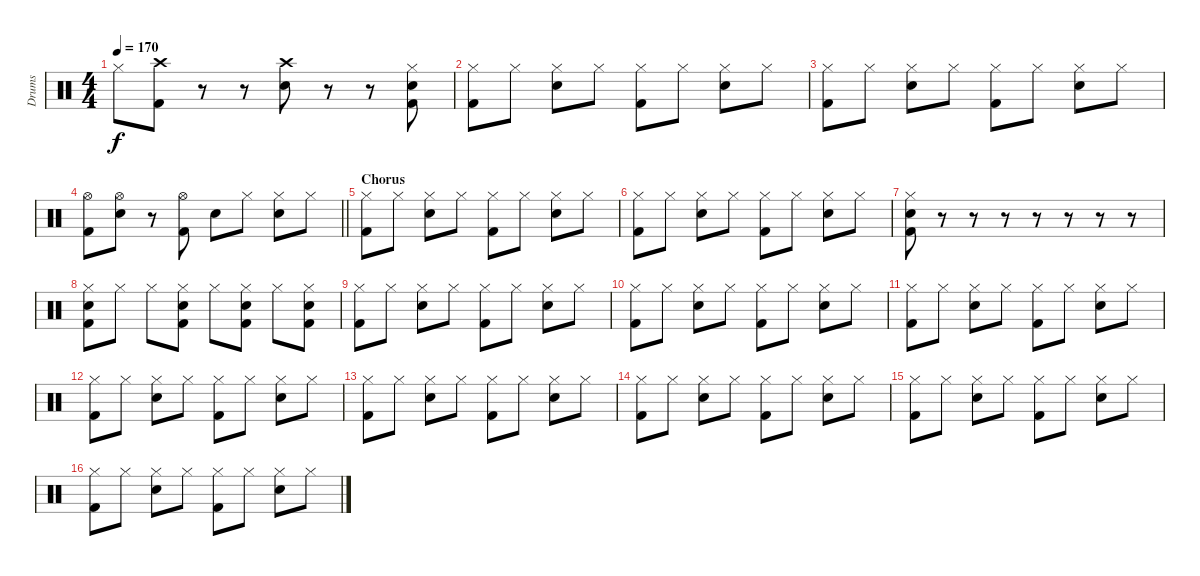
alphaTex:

\track ("Drums" "Drums") {instrument percussion}
\staff {score}
\articulation defaults
\ts (4 4)
\tempo 170
\clef neutral
\ks c "Hi-Hat (closed)".8{dy f}
("Crash high (hit)" "Kick (hit) 2").8 r.8 r.8 ("Crash high (hit)" "Snare (hit) 2").8 r.8 r.8 ("Hi-Hat (closed)" "Snare (hit) 2" "Kick (hit) 2").8 |
("Hi-Hat (closed)" "Kick (hit) 2").8 "Hi-Hat (closed)".8 ("Hi-Hat (closed)" "Snare (hit) 2").8 "Hi-Hat (closed)".8 ("Hi-Hat (closed)" "Kick (hit) 2").8 "Hi-Hat (closed)".8 ("Hi-Hat (closed)" "Snare (hit) 2").8 "Hi-Hat (closed)".8 |
("Hi-Hat (closed)" "Kick (hit) 2").8 "Hi-Hat (closed)".8 ("Hi-Hat (closed)" "Snare (hit) 2").8 "Hi-Hat (closed)".8 ("Hi-Hat (closed)" "Kick (hit) 2").8 "Hi-Hat (closed)".8 ("Hi-Hat (closed)" "Snare (hit) 2").8 "Hi-Hat (closed)".8 |
\barLineRight lightlight
("Hi-Hat (open)" "Kick (hit) 2").8 ("Hi-Hat (open)" "Snare (hit) 2").8 r.8 ("Hi-Hat (open)" "Kick (hit) 2").8 "Snare (hit) 2".8 "Hi-Hat (closed)".8 ("Hi-Hat (closed)" "Snare (hit) 2").8 "Hi-Hat (closed)".8 |
\section ("" "Chorus")
("Hi-Hat (closed)" "Kick (hit) 2").8 "Hi-Hat (closed)".8 ("Hi-Hat (closed)" "Snare (hit) 2").8 "Hi-Hat (closed)".8 ("Hi-Hat (closed)" "Kick (hit) 2").8 "Hi-Hat (closed)".8 ("Hi-Hat (closed)" "Snare (hit) 2").8 "Hi-Hat (closed)".8 |
("Hi-Hat (closed)" "Kick (hit) 2").8 "Hi-Hat (closed)".8 ("Hi-Hat (closed)" "Snare (hit) 2").8 "Hi-Hat (closed)".8 ("Hi-Hat (closed)" "Kick (hit) 2").8 "Hi-Hat (closed)".8 ("Hi-Hat (closed)" "Snare (hit) 2").8 "Hi-Hat (closed)".8 |
("Hi-Hat (closed)" "Snare (hit) 2" "Kick (hit) 2").8 r.8 r.8 r.8 r.8 r.8 r.8 r.8 |
("Hi-Hat (closed)" "Snare (hit) 2" "Kick (hit) 2").8 "Hi-Hat (closed)".8 "Hi-Hat (closed)".8 ("Hi-Hat (closed)" "Snare (hit) 2" "Kick (hit) 2").8 "Hi-Hat (closed)".8 ("Hi-Hat (closed)" "Snare (hit) 2" "Kick (hit) 2").8 "Hi-Hat (closed)".8 ("Hi-Hat (closed)" "Snare (hit) 2" "Kick (hit) 2").8 |
("Hi-Hat (closed)" "Kick (hit) 2").8 "Hi-Hat (closed)".8 ("Hi-Hat (closed)" "Snare (hit) 2").8 "Hi-Hat (closed)".8 ("Hi-Hat (closed)" "Kick (hit) 2").8 "Hi-Hat (closed)".8 ("Hi-Hat (closed)" "Snare (hit) 2").8 "Hi-Hat (closed)".8 |
("Hi-Hat (closed)" "Kick (hit) 2").8 "Hi-Hat (closed)".8 ("Hi-Hat (closed)" "Snare (hit) 2").8 "Hi-Hat (closed)".8 ("Hi-Hat (closed)" "Kick (hit) 2").8 "Hi-Hat (closed)".8 ("Hi-Hat (closed)" "Snare (hit) 2").8 "Hi-Hat (closed)".8 |
("Hi-Hat (closed)" "Kick (hit) 2").8 "Hi-Hat (closed)".8 ("Hi-Hat (closed)" "Snare (hit) 2").8 "Hi-Hat (closed)".8 ("Hi-Hat (closed)" "Kick (hit) 2").8 "Hi-Hat (closed)".8 ("Hi-Hat (closed)" "Snare (hit) 2").8 "Hi-Hat (closed)".8 |
("Hi-Hat (closed)" "Kick (hit) 2").8 "Hi-Hat (closed)".8 ("Hi-Hat (closed)" "Snare (hit) 2").8 "Hi-Hat (closed)".8 ("Hi-Hat (closed)" "Kick (hit) 2").8 "Hi-Hat (closed)".8 ("Hi-Hat (closed)" "Snare (hit) 2").8 "Hi-Hat (closed)".8 |
("Hi-Hat (closed)" "Kick (hit) 2").8 "Hi-Hat (closed)".8 ("Hi-Hat (closed)" "Snare (hit) 2").8 "Hi-Hat (closed)".8 ("Hi-Hat (closed)" "Kick (hit) 2").8 "Hi-Hat (closed)".8 ("Hi-Hat (closed)" "Snare (hit) 2").8 "Hi-Hat (closed)".8 |
("Hi-Hat (closed)" "Kick (hit) 2").8 "Hi-Hat (closed)".8 ("Hi-Hat (closed)" "Snare (hit) 2").8 "Hi-Hat (closed)".8 ("Hi-Hat (closed)" "Kick (hit) 2").8 "Hi-Hat (closed)".8 ("Hi-Hat (closed)" "Snare (hit) 2").8 "Hi-Hat (closed)".8 |
("Hi-Hat (closed)" "Kick (hit) 2").8 "Hi-Hat (closed)".8 ("Hi-Hat (closed)" "Snare (hit) 2").8 "Hi-Hat (closed)".8 ("Hi-Hat (closed)" "Kick (hit) 2").8 "Hi-Hat (closed)".8 ("Hi-Hat (closed)" "Snare (hit) 2").8 "Hi-Hat (closed)".8 |
("Hi-Hat (closed)" "Kick (hit) 2").8 "Hi-Hat (closed)".8 ("Hi-Hat (closed)" "Snare (hit) 2").8 "Hi-Hat (closed)".8 ("Hi-Hat (closed)" "Kick (hit) 2").8 "Hi-Hat (closed)".8 ("Hi-Hat (closed)" "Snare (hit) 2").8 "Hi-Hat (closed)".8
